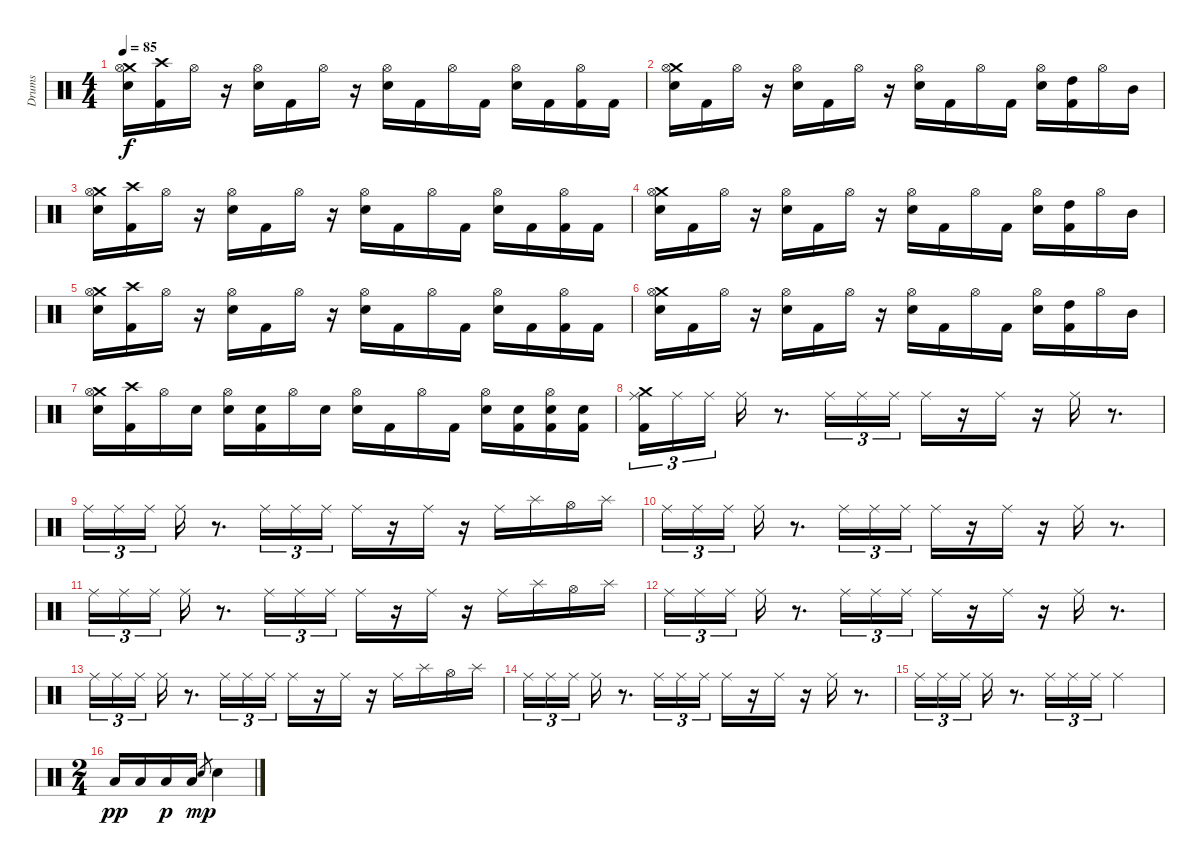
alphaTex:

\track ("Drums" "Drums") {instrument percussion}
\staff {score}
\articulation defaults
\ts (4 4)
\tempo 85
\clef neutral
\ks c
("Crash medium (hit)" "Hi-Hat (open)" "Electric Snare (hit)").16{dy f} ("Crash high (hit)" "Kick (hit) 2").16 "Hi-Hat (open)".16 r.16 ("Hi-Hat (open)" "Electric Snare (hit)").16 "Kick (hit) 2".16 "Hi-Hat (open)".16 r.16 ("Hi-Hat (open)" "Electric Snare (hit)").16 "Kick (hit) 2".16 "Hi-Hat (open)".16 "Kick (hit) 2".16 ("Hi-Hat (open)" "Electric Snare (hit)").16 "Kick (hit) 2".16 ("Hi-Hat (open)" "Kick (hit) 2").16 "Kick (hit) 2".16 |
("Crash medium (hit)" "Hi-Hat (open)" "Electric Snare (hit)").16 "Kick (hit) 2".16 "Hi-Hat (open)".16 r.16 ("Hi-Hat (open)" "Electric Snare (hit)").16 "Kick (hit) 2".16 "Hi-Hat (open)".16 r.16 ("Hi-Hat (open)" "Electric Snare (hit)").16 "Kick (hit) 2".16 "Hi-Hat (open)".16 "Kick (hit) 2".16 ("Hi-Hat (open)" "Electric Snare (hit)").16 ("High Tom (hit)" "Kick (hit) 2").16 "Hi-Hat (open)".16 "Mid Tom (hit)".16 |
("Crash medium (hit)" "Hi-Hat (open)" "Electric Snare (hit)").16 ("Crash high (hit)" "Kick (hit) 2").16 "Hi-Hat (open)".16 r.16 ("Hi-Hat (open)" "Electric Snare (hit)").16 "Kick (hit) 2".16 "Hi-Hat (open)".16 r.16 ("Hi-Hat (open)" "Electric Snare (hit)").16 "Kick (hit) 2".16 "Hi-Hat (open)".16 "Kick (hit) 2".16 ("Hi-Hat (open)" "Electric Snare (hit)").16 "Kick (hit) 2".16 ("Hi-Hat (open)" "Kick (hit) 2").16 "Kick (hit) 2".16 |
("Crash medium (hit)" "Hi-Hat (open)" "Electric Snare (hit)").16 "Kick (hit) 2".16 "Hi-Hat (open)".16 r.16 ("Hi-Hat (open)" "Electric Snare (hit)").16 "Kick (hit) 2".16 "Hi-Hat (open)".16 r.16 ("Hi-Hat (open)" "Electric Snare (hit)").16 "Kick (hit) 2".16 "Hi-Hat (open)".16 "Kick (hit) 2".16 ("Hi-Hat (open)" "Electric Snare (hit)").16 ("High Tom (hit)" "Kick (hit) 2").16 "Hi-Hat (open)".16 "Mid Tom (hit)".16 |
("Crash medium (hit)" "Hi-Hat (open)" "Electric Snare (hit)").16 ("Crash high (hit)" "Kick (hit) 2").16 "Hi-Hat (open)".16 r.16 ("Hi-Hat (open)" "Electric Snare (hit)").16 "Kick (hit) 2".16 "Hi-Hat (open)".16 r.16 ("Hi-Hat (open)" "Electric Snare (hit)").16 "Kick (hit) 2".16 "Hi-Hat (open)".16 "Kick (hit) 2".16 ("Hi-Hat (open)" "Electric Snare (hit)").16 "Kick (hit) 2".16 ("Hi-Hat (open)" "Kick (hit) 2").16 "Kick (hit) 2".16 |
("Crash medium (hit)" "Hi-Hat (open)" "Electric Snare (hit)").16 "Kick (hit) 2".16 "Hi-Hat (open)".16 r.16 ("Hi-Hat (open)" "Electric Snare (hit)").16 "Kick (hit) 2".16 "Hi-Hat (open)".16 r.16 ("Hi-Hat (open)" "Electric Snare (hit)").16 "Kick (hit) 2".16 "Hi-Hat (open)".16 "Kick (hit) 2".16 ("Hi-Hat (open)" "Electric Snare (hit)").16 ("High Tom (hit)" "Kick (hit) 2").16 "Hi-Hat (open)".16 "Mid Tom (hit)".16 |
("Crash medium (hit)" "Hi-Hat (open)" "Electric Snare (hit)").16 ("Crash high (hit)" "Kick (hit) 2").16 "Hi-Hat (open)".16 "Electric Snare (hit)".16 ("Hi-Hat (open)" "Electric Snare (hit)").16 ("Electric Snare (hit)" "Kick (hit) 2").16 "Hi-Hat (open)".16 "Electric Snare (hit)".16 ("Hi-Hat (open)" "Electric Snare (hit)").16 "Kick (hit) 2".16 "Hi-Hat (open)".16 "Kick (hit) 2".16 ("Hi-Hat (open)" "Electric Snare (hit)").16 ("Electric Snare (hit)" "Kick (hit) 2").16 ("Hi-Hat (open)" "Electric Snare (hit)" "Kick (hit) 2").16 ("Electric Snare (hit)" "Kick (hit) 2").16 |
("Crash medium (hit)" "Ride (middle)" "Kick (hit) 2").16{tu (3 2)} "Ride (middle)".16{tu (3 2)} "Ride (middle)".16{tu (3 2)} "Ride (middle)".16 r.8{d} "Ride (middle)".16{tu (3 2)} "Ride (middle)".16{tu (3 2)} "Ride (middle)".16{tu (3 2)} "Ride (middle)".16 r.16 "Ride (middle)".16 r.16 "Ride (middle)".16 r.8{d} |
"Ride (middle)".16{tu (3 2)} "Ride (middle)".16{tu (3 2)} "Ride (middle)".16{tu (3 2)} "Ride (middle)".16 r.8{d} "Ride (middle)".16{tu (3 2)} "Ride (middle)".16{tu (3 2)} "Ride (middle)".16{tu (3 2)} "Ride (middle)".16 r.16 "Ride (middle)".16 r.16 "Ride (middle)".16 "Splash (hit)".16 "Hi-Hat (open)".16 "Splash (hit)".16 |
"Ride (middle)".16{tu (3 2)} "Ride (middle)".16{tu (3 2)} "Ride (middle)".16{tu (3 2)} "Ride (middle)".16 r.8{d} "Ride (middle)".16{tu (3 2)} "Ride (middle)".16{tu (3 2)} "Ride (middle)".16{tu (3 2)} "Ride (middle)".16 r.16 "Ride (middle)".16 r.16 "Ride (middle)".16 r.8{d} |
"Ride (middle)".16{tu (3 2)} "Ride (middle)".16{tu (3 2)} "Ride (middle)".16{tu (3 2)} "Ride (middle)".16 r.8{d} "Ride (middle)".16{tu (3 2)} "Ride (middle)".16{tu (3 2)} "Ride (middle)".16{tu (3 2)} "Ride (middle)".16 r.16 "Ride (middle)".16 r.16 "Ride (middle)".16 "Splash (hit)".16 "Hi-Hat (open)".16 "Splash (hit)".16 |
"Ride (middle)".16{tu (3 2)} "Ride (middle)".16{tu (3 2)} "Ride (middle)".16{tu (3 2)} "Ride (middle)".16 r.8{d} "Ride (middle)".16{tu (3 2)} "Ride (middle)".16{tu (3 2)} "Ride (middle)".16{tu (3 2)} "Ride (middle)".16 r.16 "Ride (middle)".16 r.16 "Ride (middle)".16 r.8{d} |
"Ride (middle)".16{tu (3 2)} "Ride (middle)".16{tu (3 2)} "Ride (middle)".16{tu (3 2)} "Ride (middle)".16 r.8{d} "Ride (middle)".16{tu (3 2)} "Ride (middle)".16{tu (3 2)} "Ride (middle)".16{tu (3 2)} "Ride (middle)".16 r.16 "Ride (middle)".16 r.16 "Ride (middle)".16 "Splash (hit)".16 "Hi-Hat (open)".16 "Splash (hit)".16 |
"Ride (middle)".16{tu (3 2)} "Ride (middle)".16{tu (3 2)} "Ride (middle)".16{tu (3 2)} "Ride (middle)".16 r.8{d} "Ride (middle)".16{tu (3 2)} "Ride (middle)".16{tu (3 2)} "Ride (middle)".16{tu (3 2)} "Ride (middle)".16 r.16 "Ride (middle)".16 r.16 "Ride (middle)".16 r.8{d} |
"Ride (middle)".16{tu (3 2)} "Ride (middle)".16{tu (3 2)} "Ride (middle)".16{tu (3 2)} "Ride (middle)".16 r.8{d} "Ride (middle)".16{tu (3 2)} "Ride (middle)".16{tu (3 2)} "Ride (middle)".16{tu (3 2)} "Ride (middle)".2 |
\ts (2 4)
"Low Tom (hit)".16{dy pp} "Low Tom (hit)".16 "Low Tom (hit)".16{dy p} "Low Tom (hit)".16 "Electric Snare (hit)".8{gr dy mp} "Electric Snare (hit)".4
